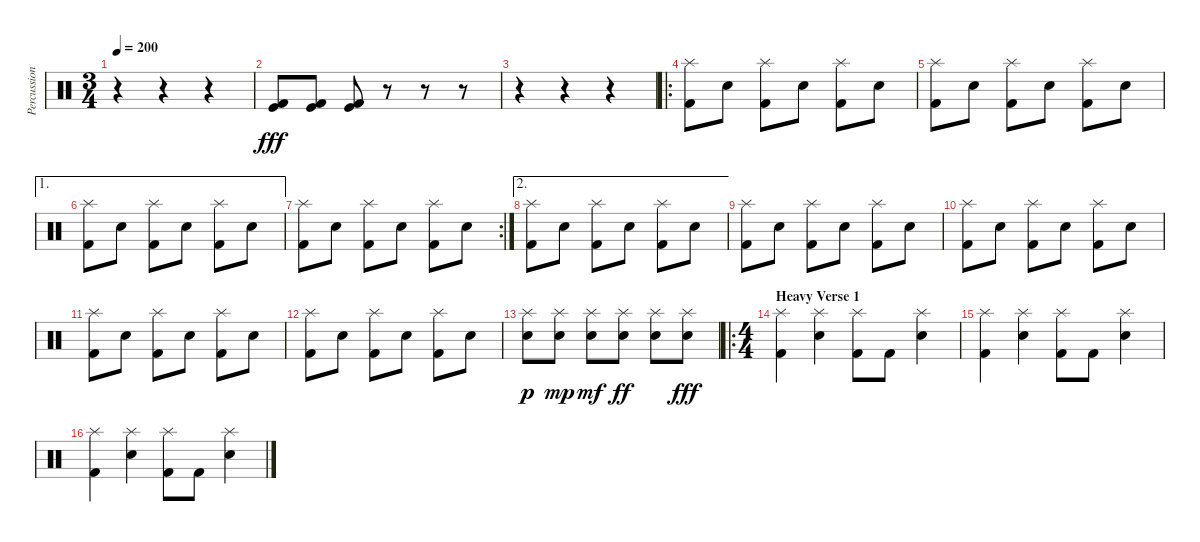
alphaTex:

\track ("Percussion" "Percussion") {instrument percussion}
\staff {score}
\articulation defaults
\ts (3 4)
\tempo 200
\clef neutral
\ks c
r.4{dy fff} r.4 r.4 |
("Kick (hit)" "Kick (hit) 2").8 ("Kick (hit)" "Kick (hit) 2").8 ("Kick (hit)" "Kick (hit) 2").8 r.8 r.8 r.8 |
r.4 r.4 r.4 |
\ro
("Splash (hit)" "Kick (hit) 2").8 "Electric Snare (hit)".8 ("Splash (hit)" "Kick (hit) 2").8 "Electric Snare (hit)".8 ("Splash (hit)" "Kick (hit) 2").8 "Electric Snare (hit)".8 |
("Splash (hit)" "Kick (hit) 2").8 "Electric Snare (hit)".8 ("Splash (hit)" "Kick (hit) 2").8 "Electric Snare (hit)".8 ("Splash (hit)" "Kick (hit) 2").8 "Electric Snare (hit)".8 |
\ae 1
("Splash (hit)" "Kick (hit) 2").8 "Electric Snare (hit)".8 ("Splash (hit)" "Kick (hit) 2").8 "Electric Snare (hit)".8 ("Splash (hit)" "Kick (hit) 2").8 "Electric Snare (hit)".8 |
\rc 2
("Splash (hit)" "Kick (hit) 2").8 "Electric Snare (hit)".8 ("Splash (hit)" "Kick (hit) 2").8 "Electric Snare (hit)".8 ("Splash (hit)" "Kick (hit) 2").8 "Electric Snare (hit)".8 |
\ae 2
("Splash (hit)" "Kick (hit) 2").8 "Electric Snare (hit)".8 ("Splash (hit)" "Kick (hit) 2").8 "Electric Snare (hit)".8 ("Splash (hit)" "Kick (hit) 2").8 "Electric Snare (hit)".8 |
("Splash (hit)" "Kick (hit) 2").8 "Electric Snare (hit)".8 ("Splash (hit)" "Kick (hit) 2").8 "Electric Snare (hit)".8 ("Splash (hit)" "Kick (hit) 2").8 "Electric Snare (hit)".8 |
("Splash (hit)" "Kick (hit) 2").8 "Electric Snare (hit)".8 ("Splash (hit)" "Kick (hit) 2").8 "Electric Snare (hit)".8 ("Splash (hit)" "Kick (hit) 2").8 "Electric Snare (hit)".8 |
("Splash (hit)" "Kick (hit) 2").8 "Electric Snare (hit)".8 ("Splash (hit)" "Kick (hit) 2").8 "Electric Snare (hit)".8 ("Splash (hit)" "Kick (hit) 2").8 "Electric Snare (hit)".8 |
("Splash (hit)" "Kick (hit) 2").8 "Electric Snare (hit)".8 ("Splash (hit)" "Kick (hit) 2").8 "Electric Snare (hit)".8 ("Splash (hit)" "Kick (hit) 2").8 "Electric Snare (hit)".8 |
("Splash (hit)" "Electric Snare (hit)").8{dy p} ("Splash (hit)" "Electric Snare (hit)").8{dy mp} ("Splash (hit)" "Electric Snare (hit)").8{dy mf} ("Splash (hit)" "Electric Snare (hit)").8{dy ff} ("Splash (hit)" "Electric Snare (hit)").8 ("Splash (hit)" "Electric Snare (hit)").8{dy fff} |
\ro
\ts (4 4)
\section ("" "Heavy Verse 1")
("Splash (hit)" "Kick (hit) 2").4 ("Splash (hit)" "Electric Snare (hit)").4 ("Splash (hit)" "Kick (hit) 2").8 "Kick (hit) 2".8 ("Splash (hit)" "Electric Snare (hit)").4 |
("Splash (hit)" "Kick (hit) 2").4 ("Splash (hit)" "Electric Snare (hit)").4 ("Splash (hit)" "Kick (hit) 2").8 "Kick (hit) 2".8 ("Splash (hit)" "Electric Snare (hit)").4 |
("Splash (hit)" "Kick (hit) 2").4 ("Splash (hit)" "Electric Snare (hit)").4 ("Splash (hit)" "Kick (hit) 2").8 "Kick (hit) 2".8 ("Splash (hit)" "Electric Snare (hit)").4
